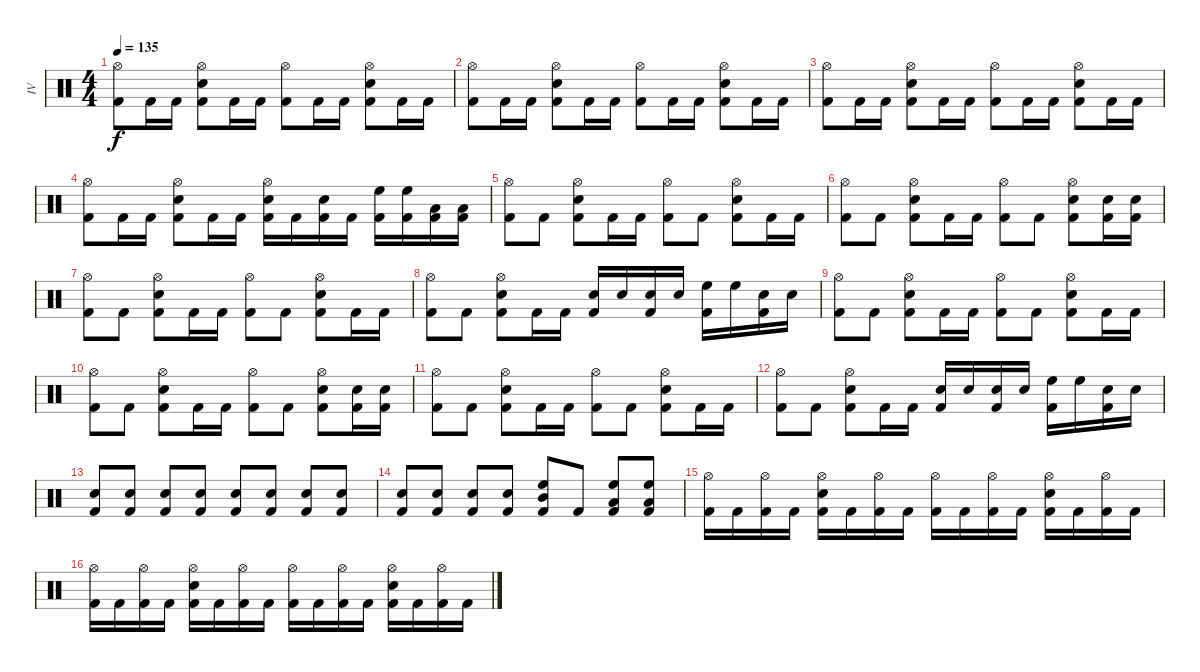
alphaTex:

\track ("IV" "IV") {instrument percussion}
\staff {score}
\articulation defaults
\ts (4 4)
\tempo 135
\clef neutral
\ks c
("Hi-Hat (open)" "Kick (hit) 2").8{dy f} "Kick (hit) 2".16 "Kick (hit) 2".16 ("Hi-Hat (open)" "Snare (hit) 2" "Kick (hit) 2").8 "Kick (hit) 2".16 "Kick (hit) 2".16 ("Hi-Hat (open)" "Kick (hit) 2").8 "Kick (hit) 2".16 "Kick (hit) 2".16 ("Hi-Hat (open)" "Snare (hit) 2" "Kick (hit) 2").8 "Kick (hit) 2".16 "Kick (hit) 2".16 |
("Hi-Hat (open)" "Kick (hit) 2").8 "Kick (hit) 2".16 "Kick (hit) 2".16 ("Hi-Hat (open)" "Snare (hit) 2" "Kick (hit) 2").8 "Kick (hit) 2".16 "Kick (hit) 2".16 ("Hi-Hat (open)" "Kick (hit) 2").8 "Kick (hit) 2".16 "Kick (hit) 2".16 ("Hi-Hat (open)" "Snare (hit) 2" "Kick (hit) 2").8 "Kick (hit) 2".16 "Kick (hit) 2".16 |
("Hi-Hat (open)" "Kick (hit) 2").8 "Kick (hit) 2".16 "Kick (hit) 2".16 ("Hi-Hat (open)" "Snare (hit) 2" "Kick (hit) 2").8 "Kick (hit) 2".16 "Kick (hit) 2".16 ("Hi-Hat (open)" "Kick (hit) 2").8 "Kick (hit) 2".16 "Kick (hit) 2".16 ("Hi-Hat (open)" "Snare (hit) 2" "Kick (hit) 2").8 "Kick (hit) 2".16 "Kick (hit) 2".16 |
("Hi-Hat (open)" "Kick (hit) 2").8 "Kick (hit) 2".16 "Kick (hit) 2".16 ("Hi-Hat (open)" "Snare (hit) 2" "Kick (hit) 2").8 "Kick (hit) 2".16 "Kick (hit) 2".16 ("Hi-Hat (open)" "Snare (hit) 2" "Kick (hit) 2").16 "Kick (hit) 2".16 ("Snare (hit) 2" "Kick (hit) 2").16 "Kick (hit) 2".16 ("High Floor Tom (hit)" "Kick (hit) 2").16 ("High Floor Tom (hit)" "Kick (hit) 2").16 ("Low Tom (hit)" "Kick (hit) 2").16 ("Low Tom (hit)" "Kick (hit) 2").16 |
("Hi-Hat (open)" "Kick (hit) 2").8 "Kick (hit) 2".8 ("Hi-Hat (open)" "Snare (hit) 2" "Kick (hit) 2").8 "Kick (hit) 2".16 "Kick (hit) 2".16 ("Hi-Hat (open)" "Kick (hit) 2").8 "Kick (hit) 2".8 ("Hi-Hat (open)" "Snare (hit) 2" "Kick (hit) 2").8 "Kick (hit) 2".16 "Kick (hit) 2".16 |
("Hi-Hat (open)" "Kick (hit) 2").8 "Kick (hit) 2".8 ("Hi-Hat (open)" "Snare (hit) 2" "Kick (hit) 2").8 "Kick (hit) 2".16 "Kick (hit) 2".16 ("Hi-Hat (open)" "Kick (hit) 2").8 "Kick (hit) 2".8 ("Hi-Hat (open)" "Snare (hit) 2" "Kick (hit) 2").8 ("Snare (hit) 2" "Kick (hit) 2").16 ("Snare (hit) 2" "Kick (hit) 2").16 |
("Hi-Hat (open)" "Kick (hit) 2").8 "Kick (hit) 2".8 ("Hi-Hat (open)" "Snare (hit) 2" "Kick (hit) 2").8 "Kick (hit) 2".16 "Kick (hit) 2".16 ("Hi-Hat (open)" "Kick (hit) 2").8 "Kick (hit) 2".8 ("Hi-Hat (open)" "Snare (hit) 2" "Kick (hit) 2").8 "Kick (hit) 2".16 "Kick (hit) 2".16 |
("Hi-Hat (open)" "Kick (hit) 2").8 "Kick (hit) 2".8 ("Hi-Hat (open)" "Snare (hit) 2" "Kick (hit) 2").8 "Kick (hit) 2".16 "Kick (hit) 2".16 ("Snare (hit) 2" "Kick (hit) 2").16 "Snare (hit) 2".16 ("Snare (hit) 2" "Kick (hit) 2").16 "Snare (hit) 2".16 ("High Floor Tom (hit)" "Kick (hit) 2").16 "High Floor Tom (hit)".16 ("Snare (hit) 2" "Kick (hit) 2").16 "Snare (hit) 2".16 |
("Hi-Hat (open)" "Kick (hit) 2").8 "Kick (hit) 2".8 ("Hi-Hat (open)" "Snare (hit) 2" "Kick (hit) 2").8 "Kick (hit) 2".16 "Kick (hit) 2".16 ("Hi-Hat (open)" "Kick (hit) 2").8 "Kick (hit) 2".8 ("Hi-Hat (open)" "Snare (hit) 2" "Kick (hit) 2").8 "Kick (hit) 2".16 "Kick (hit) 2".16 |
("Hi-Hat (open)" "Kick (hit) 2").8 "Kick (hit) 2".8 ("Hi-Hat (open)" "Snare (hit) 2" "Kick (hit) 2").8 "Kick (hit) 2".16 "Kick (hit) 2".16 ("Hi-Hat (open)" "Kick (hit) 2").8 "Kick (hit) 2".8 ("Hi-Hat (open)" "Snare (hit) 2" "Kick (hit) 2").8 ("Snare (hit) 2" "Kick (hit) 2").16 ("Snare (hit) 2" "Kick (hit) 2").16 |
("Hi-Hat (open)" "Kick (hit) 2").8 "Kick (hit) 2".8 ("Hi-Hat (open)" "Snare (hit) 2" "Kick (hit) 2").8 "Kick (hit) 2".16 "Kick (hit) 2".16 ("Hi-Hat (open)" "Kick (hit) 2").8 "Kick (hit) 2".8 ("Hi-Hat (open)" "Snare (hit) 2" "Kick (hit) 2").8 "Kick (hit) 2".16 "Kick (hit) 2".16 |
("Hi-Hat (open)" "Kick (hit) 2").8 "Kick (hit) 2".8 ("Hi-Hat (open)" "Snare (hit) 2" "Kick (hit) 2").8 "Kick (hit) 2".16 "Kick (hit) 2".16 ("Snare (hit) 2" "Kick (hit) 2").16 "Snare (hit) 2".16 ("Snare (hit) 2" "Kick (hit) 2").16 "Snare (hit) 2".16 ("High Floor Tom (hit)" "Kick (hit) 2").16 "High Floor Tom (hit)".16 ("Snare (hit) 2" "Kick (hit) 2").16 "Snare (hit) 2".16 |
("Snare (hit) 2" "Kick (hit) 2").8 ("Snare (hit) 2" "Kick (hit) 2").8 ("Snare (hit) 2" "Kick (hit) 2").8 ("Snare (hit) 2" "Kick (hit) 2").8 ("Snare (hit) 2" "Kick (hit) 2").8 ("Snare (hit) 2" "Kick (hit) 2").8 ("Snare (hit) 2" "Kick (hit) 2").8 ("Snare (hit) 2" "Kick (hit) 2").8 |
("Snare (hit) 2" "Kick (hit) 2").8 ("Snare (hit) 2" "Kick (hit) 2").8 ("Snare (hit) 2" "Kick (hit) 2").8 ("Snare (hit) 2" "Kick (hit) 2").8 ("High Floor Tom (hit)" "Mid Tom (hit)" "Kick (hit) 2").8 "Kick (hit) 2".8 ("High Floor Tom (hit)" "Low Tom (hit)" "Kick (hit) 2").8 ("High Floor Tom (hit)" "Low Tom (hit)" "Kick (hit) 2").8 |
("Hi-Hat (open)" "Kick (hit) 2").16 "Kick (hit) 2".16 ("Hi-Hat (open)" "Kick (hit) 2").16 "Kick (hit) 2".16 ("Hi-Hat (open)" "Snare (hit) 2" "Kick (hit) 2").16 "Kick (hit) 2".16 ("Hi-Hat (open)" "Kick (hit) 2").16 "Kick (hit) 2".16 ("Hi-Hat (open)" "Kick (hit) 2").16 "Kick (hit) 2".16 ("Hi-Hat (open)" "Kick (hit) 2").16 "Kick (hit) 2".16 ("Hi-Hat (open)" "Snare (hit) 2" "Kick (hit) 2").16 "Kick (hit) 2".16 ("Hi-Hat (open)" "Kick (hit) 2").16 "Kick (hit) 2".16 |
("Hi-Hat (open)" "Kick (hit) 2").16 "Kick (hit) 2".16 ("Hi-Hat (open)" "Kick (hit) 2").16 "Kick (hit) 2".16 ("Hi-Hat (open)" "Snare (hit) 2" "Kick (hit) 2").16 "Kick (hit) 2".16 ("Hi-Hat (open)" "Kick (hit) 2").16 "Kick (hit) 2".16 ("Hi-Hat (open)" "Kick (hit) 2").16 "Kick (hit) 2".16 ("Hi-Hat (open)" "Kick (hit) 2").16 "Kick (hit) 2".16 ("Hi-Hat (open)" "Snare (hit) 2" "Kick (hit) 2").16 "Kick (hit) 2".16 ("Hi-Hat (open)" "Kick (hit) 2").16 "Kick (hit) 2".16
